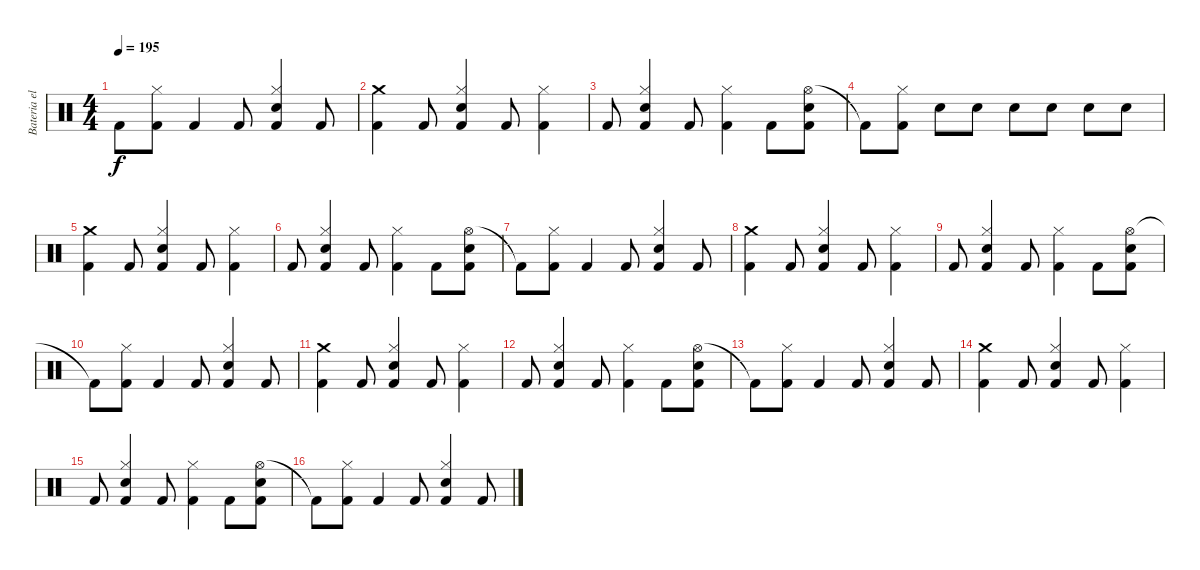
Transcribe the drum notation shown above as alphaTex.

\track ("Bateria electrica" "Bateria el") {instrument percussion}
\staff {score}
\articulation defaults
\ts (4 4)
\tempo 195
\clef neutral
\ks c "Kick (hit) 2"{t}.8{dy f}
("Hi-Hat (closed)" "Kick (hit) 2").8 "Kick (hit) 2".4 "Kick (hit) 2".8 ("Hi-Hat (closed)" "Kick (hit) 2" "Snare (hit) 2").4 "Kick (hit) 2".8 |
("Crash medium (hit)" "Kick (hit) 2").4 "Kick (hit) 2".8 ("Hi-Hat (closed)" "Kick (hit) 2" "Snare (hit) 2").4 "Kick (hit) 2".8 ("Hi-Hat (closed)" "Kick (hit) 2").4 |
"Kick (hit) 2".8 ("Hi-Hat (closed)" "Kick (hit) 2" "Snare (hit) 2").4 "Kick (hit) 2".8 ("Hi-Hat (closed)" "Kick (hit) 2").4 "Kick (hit) 2".8 ("Hi-Hat (open)" "Kick (hit) 2" "Snare (hit) 2").8 |
"Kick (hit) 2"{t}.8 ("Hi-Hat (closed)" "Kick (hit) 2").8 "Snare (hit) 2".8 "Snare (hit) 2".8 "Snare (hit) 2".8 "Snare (hit) 2".8 "Snare (hit) 2".8 "Snare (hit) 2".8 |
("Crash medium (hit)" "Kick (hit) 2").4 "Kick (hit) 2".8 ("Hi-Hat (closed)" "Kick (hit) 2" "Snare (hit) 2").4 "Kick (hit) 2".8 ("Hi-Hat (closed)" "Kick (hit) 2").4 |
"Kick (hit) 2".8 ("Hi-Hat (closed)" "Kick (hit) 2" "Snare (hit) 2").4 "Kick (hit) 2".8 ("Hi-Hat (closed)" "Kick (hit) 2").4 "Kick (hit) 2".8 ("Hi-Hat (open)" "Kick (hit) 2" "Snare (hit) 2").8 |
"Kick (hit) 2"{t}.8 ("Hi-Hat (closed)" "Kick (hit) 2").8 "Kick (hit) 2".4 "Kick (hit) 2".8 ("Hi-Hat (closed)" "Kick (hit) 2" "Snare (hit) 2").4 "Kick (hit) 2".8 |
("Crash medium (hit)" "Kick (hit) 2").4 "Kick (hit) 2".8 ("Hi-Hat (closed)" "Kick (hit) 2" "Snare (hit) 2").4 "Kick (hit) 2".8 ("Hi-Hat (closed)" "Kick (hit) 2").4 |
"Kick (hit) 2".8 ("Hi-Hat (closed)" "Kick (hit) 2" "Snare (hit) 2").4 "Kick (hit) 2".8 ("Hi-Hat (closed)" "Kick (hit) 2").4 "Kick (hit) 2".8 ("Hi-Hat (open)" "Kick (hit) 2" "Snare (hit) 2").8 |
"Kick (hit) 2"{t}.8 ("Hi-Hat (closed)" "Kick (hit) 2").8 "Kick (hit) 2".4 "Kick (hit) 2".8 ("Hi-Hat (closed)" "Kick (hit) 2" "Snare (hit) 2").4 "Kick (hit) 2".8 |
("Crash medium (hit)" "Kick (hit) 2").4 "Kick (hit) 2".8 ("Hi-Hat (closed)" "Kick (hit) 2" "Snare (hit) 2").4 "Kick (hit) 2".8 ("Hi-Hat (closed)" "Kick (hit) 2").4 |
"Kick (hit) 2".8 ("Hi-Hat (closed)" "Kick (hit) 2" "Snare (hit) 2").4 "Kick (hit) 2".8 ("Hi-Hat (closed)" "Kick (hit) 2").4 "Kick (hit) 2".8 ("Hi-Hat (open)" "Kick (hit) 2" "Snare (hit) 2").8 |
"Kick (hit) 2"{t}.8 ("Hi-Hat (closed)" "Kick (hit) 2").8 "Kick (hit) 2".4 "Kick (hit) 2".8 ("Hi-Hat (closed)" "Kick (hit) 2" "Snare (hit) 2").4 "Kick (hit) 2".8 |
("Crash medium (hit)" "Kick (hit) 2").4 "Kick (hit) 2".8 ("Hi-Hat (closed)" "Kick (hit) 2" "Snare (hit) 2").4 "Kick (hit) 2".8 ("Hi-Hat (closed)" "Kick (hit) 2").4 |
"Kick (hit) 2".8 ("Hi-Hat (closed)" "Kick (hit) 2" "Snare (hit) 2").4 "Kick (hit) 2".8 ("Hi-Hat (closed)" "Kick (hit) 2").4 "Kick (hit) 2".8 ("Hi-Hat (open)" "Kick (hit) 2" "Snare (hit) 2").8 |
"Kick (hit) 2"{t}.8 ("Hi-Hat (closed)" "Kick (hit) 2").8 "Kick (hit) 2".4 "Kick (hit) 2".8 ("Hi-Hat (closed)" "Kick (hit) 2" "Snare (hit) 2").4 "Kick (hit) 2".8
